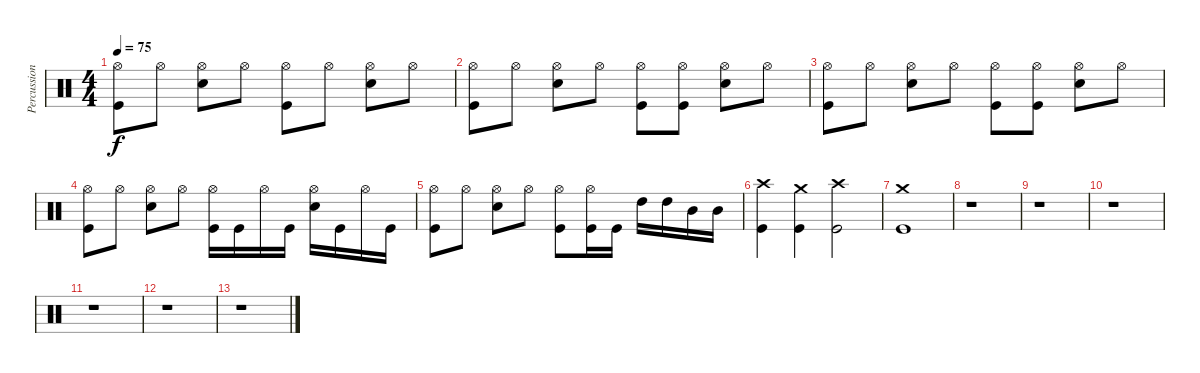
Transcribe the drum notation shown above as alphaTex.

\track ("Percussion" "Percussion") {instrument percussion}
\staff {score}
\articulation defaults
\ts (4 4)
\tempo 75
\clef neutral
\ks c
("Hi-Hat (open)" "Kick (hit)").8{dy f} "Hi-Hat (open)".8 ("Hi-Hat (open)" "Snare (hit) 2").8 "Hi-Hat (open)".8 ("Hi-Hat (open)" "Kick (hit)").8 "Hi-Hat (open)".8 ("Hi-Hat (open)" "Snare (hit) 2").8 "Hi-Hat (open)".8 |
("Hi-Hat (open)" "Kick (hit)").8 "Hi-Hat (open)".8 ("Hi-Hat (open)" "Snare (hit) 2").8 "Hi-Hat (open)".8 ("Hi-Hat (open)" "Kick (hit)").8 ("Hi-Hat (open)" "Kick (hit)").8 ("Hi-Hat (open)" "Snare (hit) 2").8 "Hi-Hat (open)".8 |
("Hi-Hat (open)" "Kick (hit)").8 "Hi-Hat (open)".8 ("Hi-Hat (open)" "Snare (hit) 2").8 "Hi-Hat (open)".8 ("Hi-Hat (open)" "Kick (hit)").8 ("Hi-Hat (open)" "Kick (hit)").8 ("Hi-Hat (open)" "Snare (hit) 2").8 "Hi-Hat (open)".8 |
("Hi-Hat (open)" "Kick (hit)").8 "Hi-Hat (open)".8 ("Hi-Hat (open)" "Snare (hit) 2").8 "Hi-Hat (open)".8 ("Hi-Hat (open)" "Kick (hit)").16 "Kick (hit)".16 "Hi-Hat (open)".16 "Kick (hit)".16 ("Hi-Hat (open)" "Snare (hit) 2").16 "Kick (hit)".16 "Hi-Hat (open)".16 "Kick (hit)".16 |
("Hi-Hat (open)" "Kick (hit)").8 "Hi-Hat (open)".8 ("Hi-Hat (open)" "Snare (hit) 2").8 "Hi-Hat (open)".8 ("Hi-Hat (open)" "Kick (hit)").8 ("Hi-Hat (open)" "Kick (hit)").16 "Kick (hit)".16 "High Tom (hit)".16 "High Tom (hit)".16 "Mid Tom (hit)".16 "Mid Tom (hit)".16 |
("Crash high (hit)" "Kick (hit)").4 ("Crash medium (hit)" "Kick (hit)").4 ("Crash high (hit)" "Kick (hit)").2 |
("Crash medium (hit)" "Kick (hit)").1 |
r.1 |
r.1 |
r.1 |
r.1 |
r.1 |
r.1
